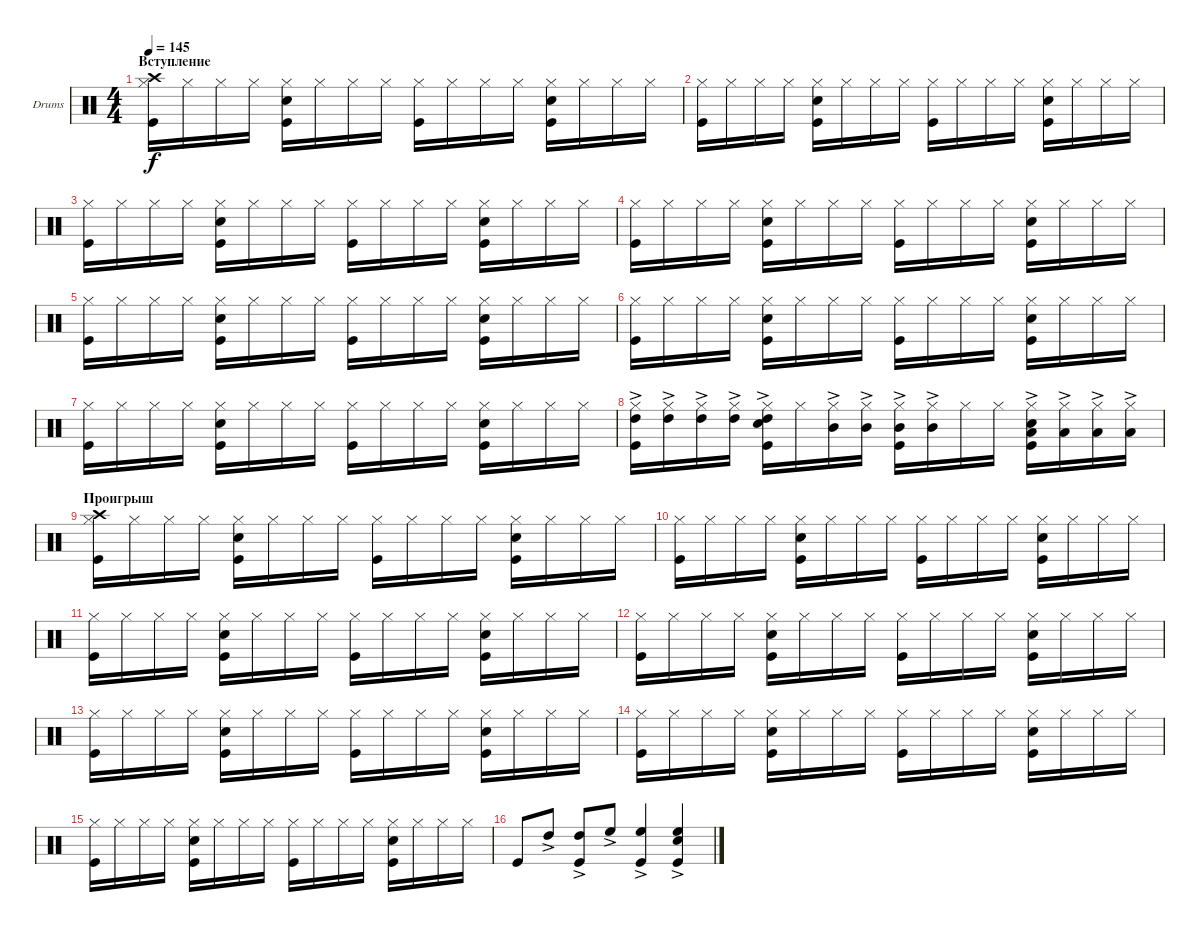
\defaultSystemsLayout 4
\bracketExtendMode groupsimilarinstruments
\firstSystemTrackNameOrientation horizontal
\otherSystemsTrackNameOrientation horizontal
\track ("Drumkit" "Drums") {instrument percussion}
\staff {score}
\articulation defaults
\ts (4 4)
\section ("" "Вступление")
\tempo 145
\clef neutral
\ks c
("Hi-Hat (closed)" "Kick (hit)" "Crash high (hit)").16{dy f} "Hi-Hat (closed)".16 "Hi-Hat (closed)".16 "Hi-Hat (closed)".16 ("Hi-Hat (closed)" "Kick (hit)" "Snare (hit) 2").16 "Hi-Hat (closed)".16 "Hi-Hat (closed)".16 "Hi-Hat (closed)".16 ("Hi-Hat (closed)" "Kick (hit)").16 "Hi-Hat (closed)".16 "Hi-Hat (closed)".16 "Hi-Hat (closed)".16 ("Hi-Hat (closed)" "Kick (hit)" "Snare (hit) 2").16 "Hi-Hat (closed)".16 "Hi-Hat (closed)".16 "Hi-Hat (closed)".16 |
("Hi-Hat (closed)" "Kick (hit)").16 "Hi-Hat (closed)".16 "Hi-Hat (closed)".16 "Hi-Hat (closed)".16 ("Hi-Hat (closed)" "Kick (hit)" "Snare (hit) 2").16 "Hi-Hat (closed)".16 "Hi-Hat (closed)".16 "Hi-Hat (closed)".16 ("Hi-Hat (closed)" "Kick (hit)").16 "Hi-Hat (closed)".16 "Hi-Hat (closed)".16 "Hi-Hat (closed)".16 ("Hi-Hat (closed)" "Kick (hit)" "Snare (hit) 2").16 "Hi-Hat (closed)".16 "Hi-Hat (closed)".16 "Hi-Hat (closed)".16 |
("Hi-Hat (closed)" "Kick (hit)").16 "Hi-Hat (closed)".16 "Hi-Hat (closed)".16 "Hi-Hat (closed)".16 ("Hi-Hat (closed)" "Kick (hit)" "Snare (hit) 2").16 "Hi-Hat (closed)".16 "Hi-Hat (closed)".16 "Hi-Hat (closed)".16 ("Hi-Hat (closed)" "Kick (hit)").16 "Hi-Hat (closed)".16 "Hi-Hat (closed)".16 "Hi-Hat (closed)".16 ("Hi-Hat (closed)" "Kick (hit)" "Snare (hit) 2").16 "Hi-Hat (closed)".16 "Hi-Hat (closed)".16 "Hi-Hat (closed)".16 |
("Hi-Hat (closed)" "Kick (hit)").16 "Hi-Hat (closed)".16 "Hi-Hat (closed)".16 "Hi-Hat (closed)".16 ("Hi-Hat (closed)" "Kick (hit)" "Snare (hit) 2").16 "Hi-Hat (closed)".16 "Hi-Hat (closed)".16 "Hi-Hat (closed)".16 ("Hi-Hat (closed)" "Kick (hit)").16 "Hi-Hat (closed)".16 "Hi-Hat (closed)".16 "Hi-Hat (closed)".16 ("Hi-Hat (closed)" "Kick (hit)" "Snare (hit) 2").16 "Hi-Hat (closed)".16 "Hi-Hat (closed)".16 "Hi-Hat (closed)".16 |
("Hi-Hat (closed)" "Kick (hit)").16 "Hi-Hat (closed)".16 "Hi-Hat (closed)".16 "Hi-Hat (closed)".16 ("Hi-Hat (closed)" "Kick (hit)" "Snare (hit) 2").16 "Hi-Hat (closed)".16 "Hi-Hat (closed)".16 "Hi-Hat (closed)".16 ("Hi-Hat (closed)" "Kick (hit)").16 "Hi-Hat (closed)".16 "Hi-Hat (closed)".16 "Hi-Hat (closed)".16 ("Hi-Hat (closed)" "Kick (hit)" "Snare (hit) 2").16 "Hi-Hat (closed)".16 "Hi-Hat (closed)".16 "Hi-Hat (closed)".16 |
("Hi-Hat (closed)" "Kick (hit)").16 "Hi-Hat (closed)".16 "Hi-Hat (closed)".16 "Hi-Hat (closed)".16 ("Hi-Hat (closed)" "Kick (hit)" "Snare (hit) 2").16 "Hi-Hat (closed)".16 "Hi-Hat (closed)".16 "Hi-Hat (closed)".16 ("Hi-Hat (closed)" "Kick (hit)").16 "Hi-Hat (closed)".16 "Hi-Hat (closed)".16 "Hi-Hat (closed)".16 ("Hi-Hat (closed)" "Kick (hit)" "Snare (hit) 2").16 "Hi-Hat (closed)".16 "Hi-Hat (closed)".16 "Hi-Hat (closed)".16 |
("Hi-Hat (closed)" "Kick (hit)").16 "Hi-Hat (closed)".16 "Hi-Hat (closed)".16 "Hi-Hat (closed)".16 ("Hi-Hat (closed)" "Kick (hit)" "Snare (hit) 2").16 "Hi-Hat (closed)".16 "Hi-Hat (closed)".16 "Hi-Hat (closed)".16 ("Hi-Hat (closed)" "Kick (hit)").16 "Hi-Hat (closed)".16 "Hi-Hat (closed)".16 "Hi-Hat (closed)".16 ("Hi-Hat (closed)" "Kick (hit)" "Snare (hit) 2").16 "Hi-Hat (closed)".16 "Hi-Hat (closed)".16 "Hi-Hat (closed)".16 |
("Hi-Hat (closed)" "Kick (hit)" "High Tom (hit)"{ac}).16 ("Hi-Hat (closed)" "High Tom (hit)"{ac}).16 ("Hi-Hat (closed)" "High Tom (hit)"{ac}).16 ("Hi-Hat (closed)" "High Tom (hit)"{ac}).16 ("Hi-Hat (closed)" "Kick (hit)" "Snare (hit) 2" "High Tom (hit)"{ac}).16 "Hi-Hat (closed)".16 ("Hi-Hat (closed)" "Mid Tom (hit)"{ac}).16 ("Hi-Hat (closed)" "Mid Tom (hit)"{ac}).16 ("Hi-Hat (closed)" "Kick (hit)" "Mid Tom (hit)"{ac}).16 ("Hi-Hat (closed)" "Mid Tom (hit)"{ac}).16 "Hi-Hat (closed)".16 "Hi-Hat (closed)".16 ("Hi-Hat (closed)" "Kick (hit)" "Snare (hit) 2" "Low Tom (hit)"{ac}).16 ("Hi-Hat (closed)" "Low Tom (hit)"{ac}).16 ("Hi-Hat (closed)" "Low Tom (hit)"{ac}).16 ("Hi-Hat (closed)" "Low Tom (hit)"{ac}).16 |
\section ("" "Проигрыш")
("Hi-Hat (closed)" "Kick (hit)" "Crash high (hit)").16 "Hi-Hat (closed)".16 "Hi-Hat (closed)".16 "Hi-Hat (closed)".16 ("Hi-Hat (closed)" "Kick (hit)" "Snare (hit) 2").16 "Hi-Hat (closed)".16 "Hi-Hat (closed)".16 "Hi-Hat (closed)".16 ("Hi-Hat (closed)" "Kick (hit)").16 "Hi-Hat (closed)".16 "Hi-Hat (closed)".16 "Hi-Hat (closed)".16 ("Hi-Hat (closed)" "Kick (hit)" "Snare (hit) 2").16 "Hi-Hat (closed)".16 "Hi-Hat (closed)".16 "Hi-Hat (closed)".16 |
("Hi-Hat (closed)" "Kick (hit)").16 "Hi-Hat (closed)".16 "Hi-Hat (closed)".16 "Hi-Hat (closed)".16 ("Hi-Hat (closed)" "Kick (hit)" "Snare (hit) 2").16 "Hi-Hat (closed)".16 "Hi-Hat (closed)".16 "Hi-Hat (closed)".16 ("Hi-Hat (closed)" "Kick (hit)").16 "Hi-Hat (closed)".16 "Hi-Hat (closed)".16 "Hi-Hat (closed)".16 ("Hi-Hat (closed)" "Kick (hit)" "Snare (hit) 2").16 "Hi-Hat (closed)".16 "Hi-Hat (closed)".16 "Hi-Hat (closed)".16 |
("Hi-Hat (closed)" "Kick (hit)").16 "Hi-Hat (closed)".16 "Hi-Hat (closed)".16 "Hi-Hat (closed)".16 ("Hi-Hat (closed)" "Kick (hit)" "Snare (hit) 2").16 "Hi-Hat (closed)".16 "Hi-Hat (closed)".16 "Hi-Hat (closed)".16 ("Hi-Hat (closed)" "Kick (hit)").16 "Hi-Hat (closed)".16 "Hi-Hat (closed)".16 "Hi-Hat (closed)".16 ("Hi-Hat (closed)" "Kick (hit)" "Snare (hit) 2").16 "Hi-Hat (closed)".16 "Hi-Hat (closed)".16 "Hi-Hat (closed)".16 |
("Hi-Hat (closed)" "Kick (hit)").16 "Hi-Hat (closed)".16 "Hi-Hat (closed)".16 "Hi-Hat (closed)".16 ("Hi-Hat (closed)" "Kick (hit)" "Snare (hit) 2").16 "Hi-Hat (closed)".16 "Hi-Hat (closed)".16 "Hi-Hat (closed)".16 ("Hi-Hat (closed)" "Kick (hit)").16 "Hi-Hat (closed)".16 "Hi-Hat (closed)".16 "Hi-Hat (closed)".16 ("Hi-Hat (closed)" "Kick (hit)" "Snare (hit) 2").16 "Hi-Hat (closed)".16 "Hi-Hat (closed)".16 "Hi-Hat (closed)".16 |
("Hi-Hat (closed)" "Kick (hit)").16 "Hi-Hat (closed)".16 "Hi-Hat (closed)".16 "Hi-Hat (closed)".16 ("Hi-Hat (closed)" "Kick (hit)" "Snare (hit) 2").16 "Hi-Hat (closed)".16 "Hi-Hat (closed)".16 "Hi-Hat (closed)".16 ("Hi-Hat (closed)" "Kick (hit)").16 "Hi-Hat (closed)".16 "Hi-Hat (closed)".16 "Hi-Hat (closed)".16 ("Hi-Hat (closed)" "Kick (hit)" "Snare (hit) 2").16 "Hi-Hat (closed)".16 "Hi-Hat (closed)".16 "Hi-Hat (closed)".16 |
("Hi-Hat (closed)" "Kick (hit)").16 "Hi-Hat (closed)".16 "Hi-Hat (closed)".16 "Hi-Hat (closed)".16 ("Hi-Hat (closed)" "Kick (hit)" "Snare (hit) 2").16 "Hi-Hat (closed)".16 "Hi-Hat (closed)".16 "Hi-Hat (closed)".16 ("Hi-Hat (closed)" "Kick (hit)").16 "Hi-Hat (closed)".16 "Hi-Hat (closed)".16 "Hi-Hat (closed)".16 ("Hi-Hat (closed)" "Kick (hit)" "Snare (hit) 2").16 "Hi-Hat (closed)".16 "Hi-Hat (closed)".16 "Hi-Hat (closed)".16 |
("Hi-Hat (closed)" "Kick (hit)").16 "Hi-Hat (closed)".16 "Hi-Hat (closed)".16 "Hi-Hat (closed)".16 ("Hi-Hat (closed)" "Kick (hit)" "Snare (hit) 2").16 "Hi-Hat (closed)".16 "Hi-Hat (closed)".16 "Hi-Hat (closed)".16 ("Hi-Hat (closed)" "Kick (hit)").16 "Hi-Hat (closed)".16 "Hi-Hat (closed)".16 "Hi-Hat (closed)".16 ("Hi-Hat (closed)" "Kick (hit)" "Snare (hit) 2").16 "Hi-Hat (closed)".16 "Hi-Hat (closed)".16 "Hi-Hat (closed)".16 |
"Kick (hit)".8 "High Tom (hit)"{ac}.8 ("High Tom (hit)"{ac} "Kick (hit)").8 "High Floor Tom (hit)"{ac}.8 ("High Floor Tom (hit)"{ac} "Kick (hit)").4 ("High Floor Tom (hit)"{ac} "Kick (hit)" "Snare (hit) 2").4
